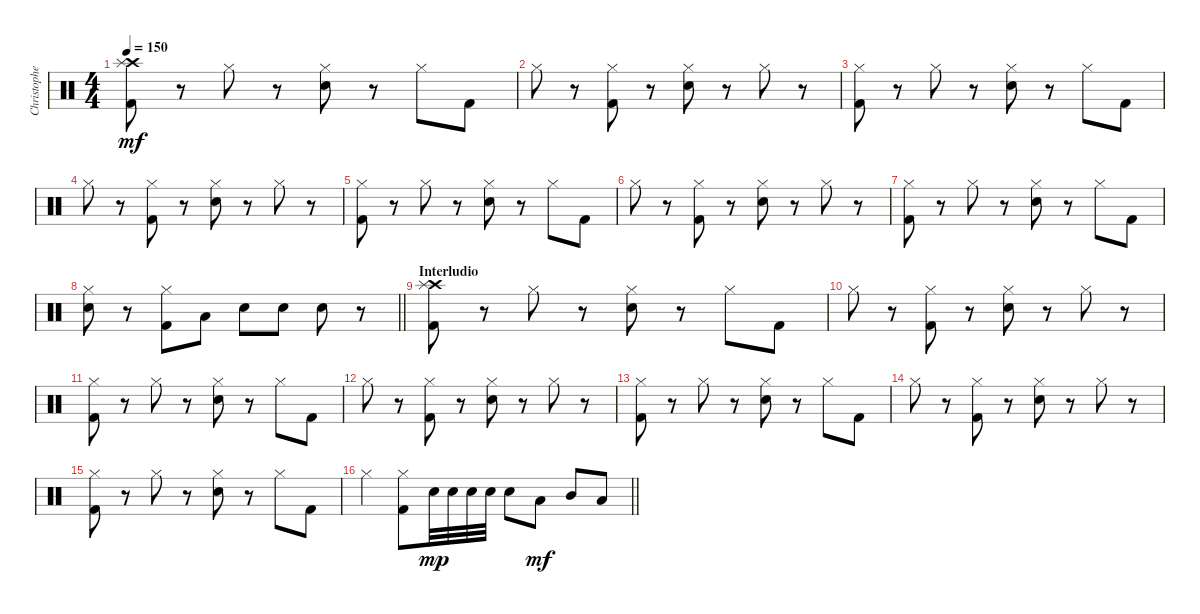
\track ("Christopher" "Christophe") {instrument percussion}
\staff {score}
\articulation defaults
\ts (4 4)
\tempo 150
\clef neutral
\ks c
("Crash high (hit)" "Splash (hit)" "Kick (hit) 2").8{dy mf} r.8 "Hi-Hat (closed)".8 r.8 ("Hi-Hat (closed)" "Electric Snare (hit)").8 r.8 "Hi-Hat (closed)".8 "Kick (hit) 2".8 |
"Hi-Hat (closed)".8 r.8 ("Hi-Hat (closed)" "Kick (hit) 2").8 r.8 ("Hi-Hat (closed)" "Electric Snare (hit)").8 r.8 "Hi-Hat (closed)".8 r.8 |
("Hi-Hat (closed)" "Kick (hit) 2").8 r.8 "Hi-Hat (closed)".8 r.8 ("Hi-Hat (closed)" "Electric Snare (hit)").8 r.8 "Hi-Hat (closed)".8 "Kick (hit) 2".8 |
"Hi-Hat (closed)".8 r.8 ("Hi-Hat (closed)" "Kick (hit) 2").8 r.8 ("Hi-Hat (closed)" "Electric Snare (hit)").8 r.8 "Hi-Hat (closed)".8 r.8 |
("Hi-Hat (closed)" "Kick (hit) 2").8 r.8 "Hi-Hat (closed)".8 r.8 ("Hi-Hat (closed)" "Electric Snare (hit)").8 r.8 "Hi-Hat (closed)".8 "Kick (hit) 2".8 |
"Hi-Hat (closed)".8 r.8 ("Hi-Hat (closed)" "Kick (hit) 2").8 r.8 ("Hi-Hat (closed)" "Electric Snare (hit)").8 r.8 "Hi-Hat (closed)".8 r.8 |
("Hi-Hat (closed)" "Kick (hit) 2").8 r.8 "Hi-Hat (closed)".8 r.8 ("Hi-Hat (closed)" "Electric Snare (hit)").8 r.8 "Hi-Hat (closed)".8 "Kick (hit) 2".8 |
\barLineRight lightlight
("Hi-Hat (closed)" "Electric Snare (hit)").8 r.8 ("Hi-Hat (closed)" "Kick (hit) 2").8 "Low Tom (hit)".8 "Electric Snare (hit)".8 "Electric Snare (hit)".8 "Electric Snare (hit)".8 r.8 |
\section ("" "Interludio")
("Crash high (hit)" "Splash (hit)" "Kick (hit) 2").8 r.8 "Hi-Hat (closed)".8 r.8 ("Hi-Hat (closed)" "Electric Snare (hit)").8 r.8 "Hi-Hat (closed)".8 "Kick (hit) 2".8 |
"Hi-Hat (closed)".8 r.8 ("Hi-Hat (closed)" "Kick (hit) 2").8 r.8 ("Hi-Hat (closed)" "Electric Snare (hit)").8 r.8 "Hi-Hat (closed)".8 r.8 |
("Hi-Hat (closed)" "Kick (hit) 2").8 r.8 "Hi-Hat (closed)".8 r.8 ("Hi-Hat (closed)" "Electric Snare (hit)").8 r.8 "Hi-Hat (closed)".8 "Kick (hit) 2".8 |
"Hi-Hat (closed)".8 r.8 ("Hi-Hat (closed)" "Kick (hit) 2").8 r.8 ("Hi-Hat (closed)" "Electric Snare (hit)").8 r.8 "Hi-Hat (closed)".8 r.8 |
("Hi-Hat (closed)" "Kick (hit) 2").8 r.8 "Hi-Hat (closed)".8 r.8 ("Hi-Hat (closed)" "Electric Snare (hit)").8 r.8 "Hi-Hat (closed)".8 "Kick (hit) 2".8 |
"Hi-Hat (closed)".8 r.8 ("Hi-Hat (closed)" "Kick (hit) 2").8 r.8 ("Hi-Hat (closed)" "Electric Snare (hit)").8 r.8 "Hi-Hat (closed)".8 r.8 |
("Hi-Hat (closed)" "Kick (hit) 2").8 r.8 "Hi-Hat (closed)".8 r.8 ("Hi-Hat (closed)" "Electric Snare (hit)").8 r.8 "Hi-Hat (closed)".8 "Kick (hit) 2".8 |
\barLineRight lightlight "Hi-Hat (closed)".4
("Hi-Hat (closed)" "Kick (hit) 2").8 "Electric Snare (hit)".32{dy mp} "Electric Snare (hit)".32 "Electric Snare (hit)".32 "Electric Snare (hit)".32 "Electric Snare (hit)".8 "Low Tom (hit)".8{dy mf} "Mid Tom (hit)".8 "Low Tom (hit)".8
